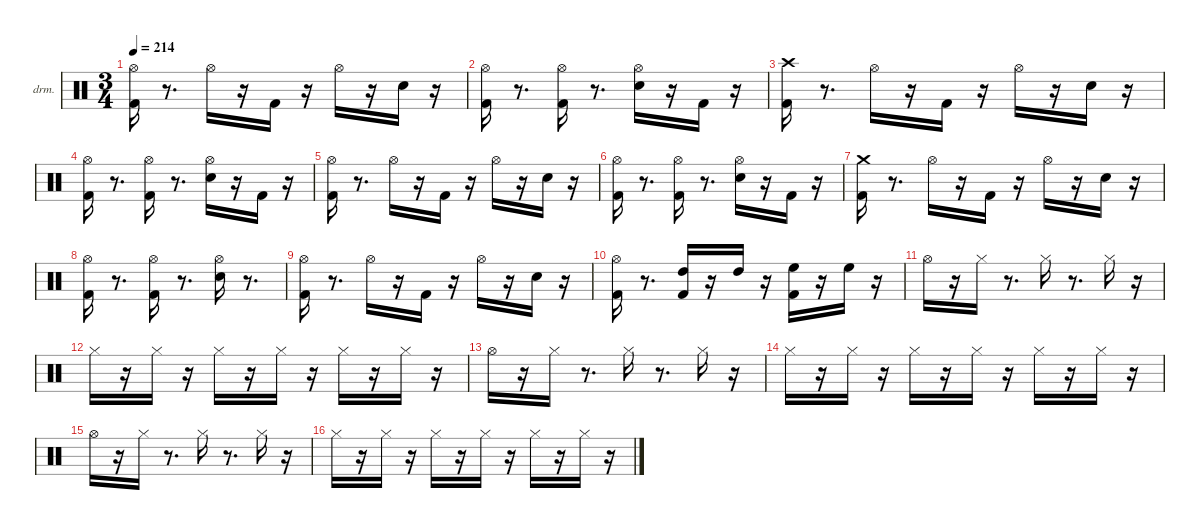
\hideDynamics
\bracketExtendMode nobrackets
\firstSystemTrackNameOrientation horizontal
\otherSystemsTrackNameOrientation horizontal
\track ("EZdrummer 3" "drm.") {instrument percussion}
\staff {score}
\articulation defaults
\ts (3 4)
\tempo 214
\clef neutral
\ks aminor
("Kick (hit) 2" "Hi-Hat (open)"{acc #}).16{dy fff beam Down} r.8{d beam Down} "Hi-Hat (open)"{acc #}.16{dy mf beam Down} r.16{beam Down} "Kick (hit) 2".16{dy ff beam Up} r.16{beam Up} "Hi-Hat (open)"{acc #}.16{dy f beam Down} r.16{beam Down} "Snare (hit) 2".16{dy ff beam Down} r.16{beam Down} |
("Kick (hit) 2" "Hi-Hat (open)"{acc #}).16{dy fff beam Down} r.8{d beam Down} ("Kick (hit) 2" "Hi-Hat (open)"{acc #}).16{dy ff beam Down} r.8{d beam Down} ("Snare (hit) 2" "Hi-Hat (open)"{acc #}).16{dy f beam Down} r.16{beam Down} "Kick (hit) 2".16{dy mp beam Up} r.16{beam Up} |
("Kick (hit) 2" "Crash high (hit)"{acc #}).16{dy fff beam Down} r.8{d beam Down} "Hi-Hat (open)"{acc #}.16{dy mf beam Down} r.16{beam Down} "Kick (hit) 2".16{dy ff beam Up} r.16{beam Up} "Hi-Hat (open)"{acc #}.16{dy f beam Down} r.16{beam Down} "Snare (hit) 2".16{dy ff beam Down} r.16{beam Down} |
("Kick (hit) 2" "Hi-Hat (open)"{acc #}).16{dy fff beam Down} r.8{d beam Down} ("Kick (hit) 2" "Hi-Hat (open)"{acc #}).16{dy mf beam Down} r.8{d beam Down} ("Snare (hit) 2" "Hi-Hat (open)"{acc #}).16{dy f beam Down} r.16{beam Down} "Kick (hit) 2".16{dy mp beam Up} r.16{beam Up} |
("Kick (hit) 2" "Hi-Hat (open)"{acc #}).16{dy fff beam Down} r.8{d beam Down} "Hi-Hat (open)"{acc #}.16{dy mf beam Down} r.16{beam Down} "Kick (hit) 2".16{dy ff beam Up} r.16{beam Up} "Hi-Hat (open)"{acc #}.16{dy f beam Down} r.16{beam Down} "Snare (hit) 2".16{dy ff beam Down} r.16{beam Down} |
("Kick (hit) 2" "Hi-Hat (open)"{acc #}).16{dy fff beam Down} r.8{d beam Down} ("Kick (hit) 2" "Hi-Hat (open)"{acc #}).16{dy ff beam Down} r.8{d beam Down} ("Snare (hit) 2" "Hi-Hat (open)"{acc #}).16{dy f beam Down} r.16{beam Down} "Kick (hit) 2".16{dy mp beam Up} r.16{beam Up} |
("Kick (hit) 2" "Crash medium (hit)").16{dy fff beam Down} r.8{d beam Down} "Hi-Hat (open)"{acc #}.16{dy mf beam Down} r.16{beam Down} "Kick (hit) 2".16{dy f beam Up} r.16{beam Up} "Hi-Hat (open)"{acc #}.16{beam Down} r.16{beam Down} "Snare (hit) 2".16{dy ff beam Down} r.16{beam Down} |
("Kick (hit) 2" "Hi-Hat (open)"{acc #}).16{dy fff beam Down} r.8{d beam Down} ("Kick (hit) 2" "Hi-Hat (open)"{acc #}).16{dy mf beam Down} r.8{d beam Down} ("Snare (hit) 2" "Hi-Hat (open)"{acc #}).16{dy f beam Down} r.8{d beam Down} |
("Kick (hit) 2" "Hi-Hat (open)"{acc #}).16{dy fff beam Down} r.8{d beam Down} "Hi-Hat (open)"{acc #}.16{dy mp beam Down} r.16{beam Down} "Kick (hit) 2".16{dy f beam Up} r.16{beam Up} "Hi-Hat (open)"{acc #}.16{beam Down} r.16{beam Down} "Snare (hit) 2".16{dy ff beam Down} r.16{beam Down} |
("Kick (hit) 2" "Hi-Hat (open)"{acc #}).16{dy fff beam Down} r.8{d beam Down} ("Kick (hit) 2" "High Tom (hit)").16{dy mf beam Up} r.16{beam Up} "High Tom (hit)".16{dy mp beam Down} r.16{beam Down} ("Kick (hit) 2" "High Floor Tom (hit)").16{dy ff beam Down} r.16{beam Down} "High Floor Tom (hit)".16{dy mp beam Down} r.16{beam Down} |
"Hi-Hat (open)"{acc #}.16{dy fff beam Down} r.16{beam Down} "Hi-Hat (closed)"{acc #}.16{dy ff beam Down} r.8{d beam Down} "Hi-Hat (closed)"{acc #}.16{dy mp beam Down} r.8{d beam Down} "Hi-Hat (closed)"{acc #}.16{dy mf beam Down} r.16{beam Down} |
"Hi-Hat (closed)"{acc #}.16{dy ff beam Down} r.16{beam Down} "Hi-Hat (closed)"{acc #}.16{dy ppp beam Down} r.16{beam Down} "Hi-Hat (closed)"{acc #}.16{dy mp beam Down} r.16{beam Down} "Hi-Hat (closed)"{acc #}.16{dy ppp beam Down} r.16{beam Down} "Hi-Hat (closed)"{acc #}.16{dy mp beam Down} r.16{beam Down} "Hi-Hat (closed)"{acc #}.16{dy ppp beam Down} r.16{beam Down} |
"Hi-Hat (open)"{acc #}.16{dy fff beam Down} r.16{beam Down} "Hi-Hat (closed)"{acc #}.16{dy ff beam Down} r.8{d beam Down} "Hi-Hat (closed)"{acc #}.16{dy mp beam Down} r.8{d beam Down} "Hi-Hat (closed)"{acc #}.16{dy mf beam Down} r.16{beam Down} |
"Hi-Hat (closed)"{acc #}.16{dy ff beam Down} r.16{beam Down} "Hi-Hat (closed)"{acc #}.16{dy ppp beam Down} r.16{beam Down} "Hi-Hat (closed)"{acc #}.16{dy mp beam Down} r.16{beam Down} "Hi-Hat (closed)"{acc #}.16{dy ppp beam Down} r.16{beam Down} "Hi-Hat (closed)"{acc #}.16{dy mp beam Down} r.16{beam Down} "Hi-Hat (closed)"{acc #}.16{dy ppp beam Down} r.16{beam Down} |
"Hi-Hat (open)"{acc #}.16{dy fff beam Down} r.16{beam Down} "Hi-Hat (closed)"{acc #}.16{dy ff beam Down} r.8{d beam Down} "Hi-Hat (closed)"{acc #}.16{dy mp beam Down} r.8{d beam Down} "Hi-Hat (closed)"{acc #}.16{dy mf beam Down} r.16{beam Down} |
"Hi-Hat (closed)"{acc #}.16{dy ff beam Down} r.16{beam Down} "Hi-Hat (closed)"{acc #}.16{dy ppp beam Down} r.16{beam Down} "Hi-Hat (closed)"{acc #}.16{dy mp beam Down} r.16{beam Down} "Hi-Hat (closed)"{acc #}.16{dy ppp beam Down} r.16{beam Down} "Hi-Hat (closed)"{acc #}.16{dy mp beam Down} r.16{beam Down} "Hi-Hat (closed)"{acc #}.16{dy ppp beam Down} r.16{beam Down}
